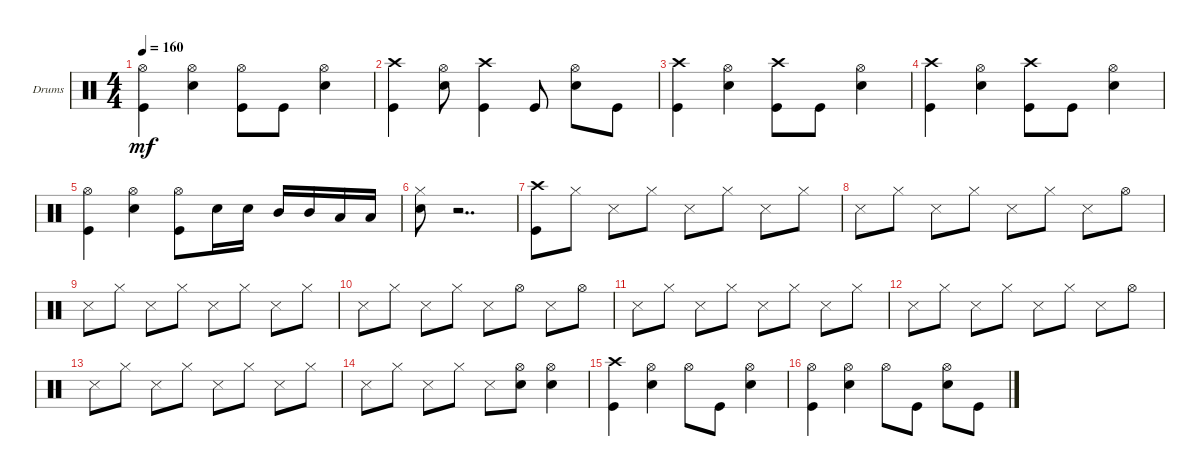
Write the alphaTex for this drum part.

\defaultSystemsLayout 4
\bracketExtendMode groupsimilarinstruments
\firstSystemTrackNameOrientation horizontal
\otherSystemsTrackNameOrientation horizontal
\track ("Drumkit" "Drums") {instrument percussion}
\staff {score}
\articulation defaults
\ts (4 4)
\tempo 160
\clef neutral
\scale
0.333333
\ks c
("Kick (hit)" "Hi-Hat (open)").4{dy mf} ("Snare (hit) 2" "Hi-Hat (open)").4 ("Kick (hit)" "Hi-Hat (open)").8 "Kick (hit)".8 ("Snare (hit) 2" "Hi-Hat (open)").4 |
\scale
0.333333 ("Kick (hit)" "Crash high (hit)").4 ("Snare (hit) 2" "Hi-Hat (open)").8 ("Kick (hit)" "Crash high (hit)").4 "Kick (hit)".8 ("Snare (hit) 2" "Hi-Hat (open)").8 "Kick (hit)".8 |
\scale
0.333333 ("Crash high (hit)" "Kick (hit)").4 ("Snare (hit) 2" "Hi-Hat (open)").4 ("Kick (hit)" "Crash high (hit)").8 "Kick (hit)".8 ("Snare (hit) 2" "Hi-Hat (open)").4 |
\scale
0.333333 ("Crash high (hit)" "Kick (hit)").4 ("Snare (hit) 2" "Hi-Hat (open)").4 ("Kick (hit)" "Crash high (hit)").8 "Kick (hit)".8 ("Snare (hit) 2" "Hi-Hat (open)").4 |
\scale
0.333333 ("Kick (hit)" "Hi-Hat (open)").4 ("Snare (hit) 2" "Hi-Hat (open)").4 ("Kick (hit)" "Hi-Hat (open)").8 "Snare (hit) 2".16 "Snare (hit) 2".16 "Mid Tom (hit)".16 "Mid Tom (hit)".16 "Low Tom (hit)".16 "Low Tom (hit)".16 |
\scale
0.333333 ("Hi-Hat (closed)" "Snare (hit) 2").8 r.2{dd} |
\scale
0.333333 ("Kick (hit)" "Crash high (hit)").8 "Hi-Hat (closed)".8 "Snare (side stick) 3".8 "Hi-Hat (closed)".8 "Snare (side stick) 3".8 "Hi-Hat (closed)".8 "Snare (side stick) 3".8 "Hi-Hat (closed)".8 |
\scale
0.333333 "Snare (side stick) 3".8 "Hi-Hat (closed)".8 "Snare (side stick) 3".8 "Hi-Hat (closed)".8 "Snare (side stick) 3".8 "Hi-Hat (closed)".8 "Snare (side stick) 3".8 "Hi-Hat (open)".8 |
\scale
0.333333 "Snare (side stick) 3".8 "Hi-Hat (closed)".8 "Snare (side stick) 3".8 "Hi-Hat (closed)".8 "Snare (side stick) 3".8 "Hi-Hat (closed)".8 "Snare (side stick) 3".8 "Hi-Hat (closed)".8 |
\scale
0.333333 "Snare (side stick) 3".8 "Hi-Hat (closed)".8 "Snare (side stick) 3".8 "Hi-Hat (closed)".8 "Snare (side stick) 3".8 "Hi-Hat (open)".8 "Snare (side stick) 3".8 "Hi-Hat (open)".8 |
\scale
0.333333 "Snare (side stick) 3".8 "Hi-Hat (closed)".8 "Snare (side stick) 3".8 "Hi-Hat (closed)".8 "Snare (side stick) 3".8 "Hi-Hat (closed)".8 "Snare (side stick) 3".8 "Hi-Hat (closed)".8 |
\scale
0.333333 "Snare (side stick) 3".8 "Hi-Hat (closed)".8 "Snare (side stick) 3".8 "Hi-Hat (closed)".8 "Snare (side stick) 3".8 "Hi-Hat (closed)".8 "Snare (side stick) 3".8 "Hi-Hat (open)".8 |
\scale
0.333333 "Snare (side stick) 3".8 "Hi-Hat (closed)".8 "Snare (side stick) 3".8 "Hi-Hat (closed)".8 "Snare (side stick) 3".8 "Hi-Hat (closed)".8 "Snare (side stick) 3".8 "Hi-Hat (closed)".8 |
\scale
0.333333 "Snare (side stick) 3".8 "Hi-Hat (closed)".8 "Snare (side stick) 3".8 "Hi-Hat (closed)".8 "Snare (side stick) 3".8 ("Snare (hit) 2" "Hi-Hat (open)").8 ("Snare (hit) 2" "Hi-Hat (open)").4 |
\scale
0.333333 ("Kick (hit)" "Crash high (hit)").4 ("Snare (hit) 2" "Hi-Hat (open)").4 "Hi-Hat (open)".8 "Kick (hit)".8 ("Snare (hit) 2" "Hi-Hat (open)").4 |
\scale
0.333333 ("Kick (hit)" "Hi-Hat (open)").4 ("Snare (hit) 2" "Hi-Hat (open)").4 "Hi-Hat (open)".8 "Kick (hit)".8 ("Snare (hit) 2" "Hi-Hat (open)").8 "Kick (hit)".8
